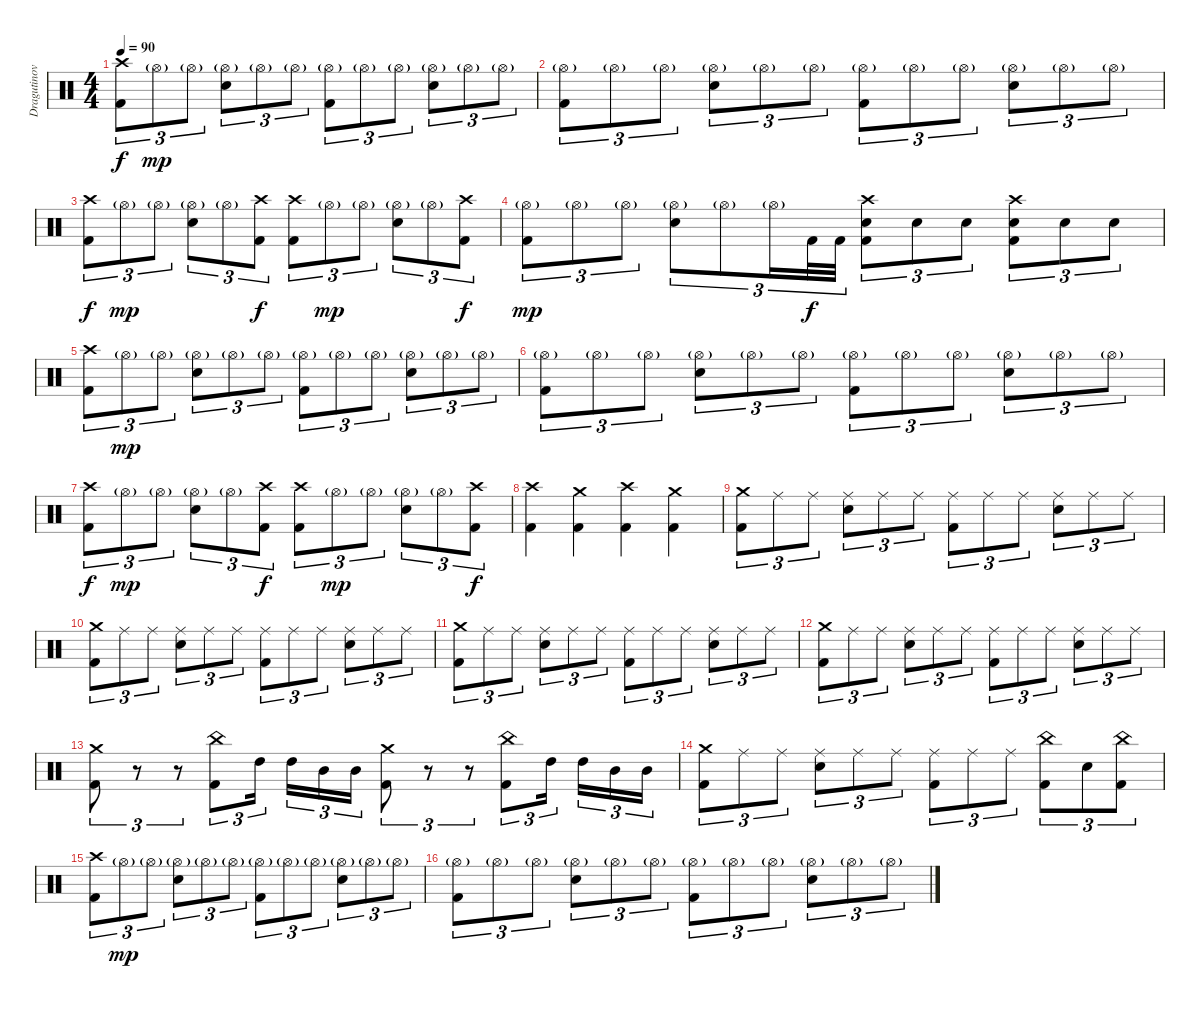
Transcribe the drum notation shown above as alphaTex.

\track ("Dragutinovic" "Dragutinov") {instrument percussion}
\staff {score}
\articulation defaults
\ts (4 4)
\tempo 90
\clef neutral
\ks c
("Crash high (hit)" "Kick (hit) 2").8{tu (3 2) dy f} "Hi-Hat (open)"{g}.8{tu (3 2) dy mp} "Hi-Hat (open)"{g}.8{tu (3 2)} ("Hi-Hat (open)"{g} "Electric Snare (hit)").8{tu (3 2)} "Hi-Hat (open)"{g}.8{tu (3 2)} "Hi-Hat (open)"{g}.8{tu (3 2)} ("Hi-Hat (open)"{g} "Kick (hit) 2").8{tu (3 2)} "Hi-Hat (open)"{g}.8{tu (3 2)} "Hi-Hat (open)"{g}.8{tu (3 2)} ("Hi-Hat (open)"{g} "Electric Snare (hit)").8{tu (3 2)} "Hi-Hat (open)"{g}.8{tu (3 2)} "Hi-Hat (open)"{g}.8{tu (3 2)} |
("Hi-Hat (open)"{g} "Kick (hit) 2").8{tu (3 2)} "Hi-Hat (open)"{g}.8{tu (3 2)} "Hi-Hat (open)"{g}.8{tu (3 2)} ("Hi-Hat (open)"{g} "Electric Snare (hit)").8{tu (3 2)} "Hi-Hat (open)"{g}.8{tu (3 2)} "Hi-Hat (open)"{g}.8{tu (3 2)} ("Hi-Hat (open)"{g} "Kick (hit) 2").8{tu (3 2)} "Hi-Hat (open)"{g}.8{tu (3 2)} "Hi-Hat (open)"{g}.8{tu (3 2)} ("Hi-Hat (open)"{g} "Electric Snare (hit)").8{tu (3 2)} "Hi-Hat (open)"{g}.8{tu (3 2)} "Hi-Hat (open)"{g}.8{tu (3 2)} |
("Crash high (hit)" "Kick (hit) 2").8{tu (3 2) dy f} "Hi-Hat (open)"{g}.8{tu (3 2) dy mp} "Hi-Hat (open)"{g}.8{tu (3 2)} ("Hi-Hat (open)"{g} "Electric Snare (hit)").8{tu (3 2)} "Hi-Hat (open)"{g}.8{tu (3 2)} ("Crash high (hit)" "Kick (hit) 2").8{tu (3 2) dy f} ("Crash high (hit)" "Kick (hit) 2").8{tu (3 2)} "Hi-Hat (open)"{g}.8{tu (3 2) dy mp} "Hi-Hat (open)"{g}.8{tu (3 2)} ("Hi-Hat (open)"{g} "Electric Snare (hit)").8{tu (3 2)} "Hi-Hat (open)"{g}.8{tu (3 2)} ("Crash high (hit)" "Kick (hit) 2").8{tu (3 2) dy f} |
("Hi-Hat (open)"{g} "Kick (hit) 2").8{tu (3 2) dy mp} "Hi-Hat (open)"{g}.8{tu (3 2)} "Hi-Hat (open)"{g}.8{tu (3 2)} ("Hi-Hat (open)"{g} "Electric Snare (hit)").8{tu (3 2)} "Hi-Hat (open)"{g}.8{tu (3 2)} "Hi-Hat (open)"{g}.16{tu (3 2)} "Kick (hit) 2".32{tu (3 2) dy f} "Kick (hit) 2".32{tu (3 2)} ("Crash high (hit)" "Electric Snare (hit)" "Kick (hit) 2").8{tu (3 2)} "Electric Snare (hit)".8{tu (3 2)} "Electric Snare (hit)".8{tu (3 2)} ("Crash high (hit)" "Electric Snare (hit)" "Kick (hit) 2").8{tu (3 2)} "Electric Snare (hit)".8{tu (3 2)} "Electric Snare (hit)".8{tu (3 2)} |
("Crash high (hit)" "Kick (hit) 2").8{tu (3 2)} "Hi-Hat (open)"{g}.8{tu (3 2) dy mp} "Hi-Hat (open)"{g}.8{tu (3 2)} ("Hi-Hat (open)"{g} "Electric Snare (hit)").8{tu (3 2)} "Hi-Hat (open)"{g}.8{tu (3 2)} "Hi-Hat (open)"{g}.8{tu (3 2)} ("Hi-Hat (open)"{g} "Kick (hit) 2").8{tu (3 2)} "Hi-Hat (open)"{g}.8{tu (3 2)} "Hi-Hat (open)"{g}.8{tu (3 2)} ("Hi-Hat (open)"{g} "Electric Snare (hit)").8{tu (3 2)} "Hi-Hat (open)"{g}.8{tu (3 2)} "Hi-Hat (open)"{g}.8{tu (3 2)} |
("Hi-Hat (open)"{g} "Kick (hit) 2").8{tu (3 2)} "Hi-Hat (open)"{g}.8{tu (3 2)} "Hi-Hat (open)"{g}.8{tu (3 2)} ("Hi-Hat (open)"{g} "Electric Snare (hit)").8{tu (3 2)} "Hi-Hat (open)"{g}.8{tu (3 2)} "Hi-Hat (open)"{g}.8{tu (3 2)} ("Hi-Hat (open)"{g} "Kick (hit) 2").8{tu (3 2)} "Hi-Hat (open)"{g}.8{tu (3 2)} "Hi-Hat (open)"{g}.8{tu (3 2)} ("Hi-Hat (open)"{g} "Electric Snare (hit)").8{tu (3 2)} "Hi-Hat (open)"{g}.8{tu (3 2)} "Hi-Hat (open)"{g}.8{tu (3 2)} |
("Crash high (hit)" "Kick (hit) 2").8{tu (3 2) dy f} "Hi-Hat (open)"{g}.8{tu (3 2) dy mp} "Hi-Hat (open)"{g}.8{tu (3 2)} ("Hi-Hat (open)"{g} "Electric Snare (hit)").8{tu (3 2)} "Hi-Hat (open)"{g}.8{tu (3 2)} ("Crash high (hit)" "Kick (hit) 2").8{tu (3 2) dy f} ("Crash high (hit)" "Kick (hit) 2").8{tu (3 2)} "Hi-Hat (open)"{g}.8{tu (3 2) dy mp} "Hi-Hat (open)"{g}.8{tu (3 2)} ("Hi-Hat (open)"{g} "Electric Snare (hit)").8{tu (3 2)} "Hi-Hat (open)"{g}.8{tu (3 2)} ("Crash high (hit)" "Kick (hit) 2").8{tu (3 2) dy f} |
("Crash high (hit)" "Kick (hit) 2").4 ("Crash medium (hit)" "Kick (hit) 2").4 ("Crash high (hit)" "Kick (hit) 2").4 ("Crash medium (hit)" "Kick (hit) 2").4 |
("Crash medium (hit)" "Kick (hit) 2").8{tu (3 2)} "Ride (middle)".8{tu (3 2)} "Ride (middle)".8{tu (3 2)} ("Ride (middle)" "Electric Snare (hit)").8{tu (3 2)} "Ride (middle)".8{tu (3 2)} "Ride (middle)".8{tu (3 2)} ("Ride (middle)" "Kick (hit) 2").8{tu (3 2)} "Ride (middle)".8{tu (3 2)} "Ride (middle)".8{tu (3 2)} ("Ride (middle)" "Electric Snare (hit)").8{tu (3 2)} "Ride (middle)".8{tu (3 2)} "Ride (middle)".8{tu (3 2)} |
("Crash medium (hit)" "Kick (hit) 2").8{tu (3 2)} "Ride (middle)".8{tu (3 2)} "Ride (middle)".8{tu (3 2)} ("Ride (middle)" "Electric Snare (hit)").8{tu (3 2)} "Ride (middle)".8{tu (3 2)} "Ride (middle)".8{tu (3 2)} ("Ride (middle)" "Kick (hit) 2").8{tu (3 2)} "Ride (middle)".8{tu (3 2)} "Ride (middle)".8{tu (3 2)} ("Ride (middle)" "Electric Snare (hit)").8{tu (3 2)} "Ride (middle)".8{tu (3 2)} "Ride (middle)".8{tu (3 2)} |
("Crash medium (hit)" "Kick (hit) 2").8{tu (3 2)} "Ride (middle)".8{tu (3 2)} "Ride (middle)".8{tu (3 2)} ("Ride (middle)" "Electric Snare (hit)").8{tu (3 2)} "Ride (middle)".8{tu (3 2)} "Ride (middle)".8{tu (3 2)} ("Ride (middle)" "Kick (hit) 2").8{tu (3 2)} "Ride (middle)".8{tu (3 2)} "Ride (middle)".8{tu (3 2)} ("Ride (middle)" "Electric Snare (hit)").8{tu (3 2)} "Ride (middle)".8{tu (3 2)} "Ride (middle)".8{tu (3 2)} |
("Crash medium (hit)" "Kick (hit) 2").8{tu (3 2)} "Ride (middle)".8{tu (3 2)} "Ride (middle)".8{tu (3 2)} ("Ride (middle)" "Electric Snare (hit)").8{tu (3 2)} "Ride (middle)".8{tu (3 2)} "Ride (middle)".8{tu (3 2)} ("Ride (middle)" "Kick (hit) 2").8{tu (3 2)} "Ride (middle)".8{tu (3 2)} "Ride (middle)".8{tu (3 2)} ("Ride (middle)" "Electric Snare (hit)").8{tu (3 2)} "Ride (middle)".8{tu (3 2)} "Ride (middle)".8{tu (3 2)} |
("Crash medium (hit)" "Kick (hit) 2").8{tu (3 2)} r.8{tu (3 2)} r.8{tu (3 2)} ("China (hit)" "Kick (hit) 2").8{tu (3 2)} "High Tom (hit)".16{tu (3 2)} "High Tom (hit)".16{tu (3 2)} "Mid Tom (hit)".16{tu (3 2)} "Mid Tom (hit)".16{tu (3 2)} ("Crash medium (hit)" "Kick (hit) 2").8{tu (3 2)} r.8{tu (3 2)} r.8{tu (3 2)} ("China (hit)" "Kick (hit) 2").8{tu (3 2)} "High Tom (hit)".16{tu (3 2)} "High Tom (hit)".16{tu (3 2)} "Mid Tom (hit)".16{tu (3 2)} "Mid Tom (hit)".16{tu (3 2)} |
("Crash medium (hit)" "Kick (hit) 2").8{tu (3 2)} "Ride (middle)".8{tu (3 2)} "Ride (middle)".8{tu (3 2)} ("Ride (middle)" "Electric Snare (hit)").8{tu (3 2)} "Ride (middle)".8{tu (3 2)} "Ride (middle)".8{tu (3 2)} ("Ride (middle)" "Kick (hit) 2").8{tu (3 2)} "Ride (middle)".8{tu (3 2)} "Ride (middle)".8{tu (3 2)} ("China (hit)" "Kick (hit) 2").8{tu (3 2)} "Electric Snare (hit)".8{tu (3 2)} ("China (hit)" "Kick (hit) 2").8{tu (3 2)} |
("Crash high (hit)" "Kick (hit) 2").8{tu (3 2)} "Hi-Hat (open)"{g}.8{tu (3 2) dy mp} "Hi-Hat (open)"{g}.8{tu (3 2)} ("Hi-Hat (open)"{g} "Electric Snare (hit)").8{tu (3 2)} "Hi-Hat (open)"{g}.8{tu (3 2)} "Hi-Hat (open)"{g}.8{tu (3 2)} ("Hi-Hat (open)"{g} "Kick (hit) 2").8{tu (3 2)} "Hi-Hat (open)"{g}.8{tu (3 2)} "Hi-Hat (open)"{g}.8{tu (3 2)} ("Hi-Hat (open)"{g} "Electric Snare (hit)").8{tu (3 2)} "Hi-Hat (open)"{g}.8{tu (3 2)} "Hi-Hat (open)"{g}.8{tu (3 2)} |
("Hi-Hat (open)"{g} "Kick (hit) 2").8{tu (3 2)} "Hi-Hat (open)"{g}.8{tu (3 2)} "Hi-Hat (open)"{g}.8{tu (3 2)} ("Hi-Hat (open)"{g} "Electric Snare (hit)").8{tu (3 2)} "Hi-Hat (open)"{g}.8{tu (3 2)} "Hi-Hat (open)"{g}.8{tu (3 2)} ("Hi-Hat (open)"{g} "Kick (hit) 2").8{tu (3 2)} "Hi-Hat (open)"{g}.8{tu (3 2)} "Hi-Hat (open)"{g}.8{tu (3 2)} ("Hi-Hat (open)"{g} "Electric Snare (hit)").8{tu (3 2)} "Hi-Hat (open)"{g}.8{tu (3 2)} "Hi-Hat (open)"{g}.8{tu (3 2)}
